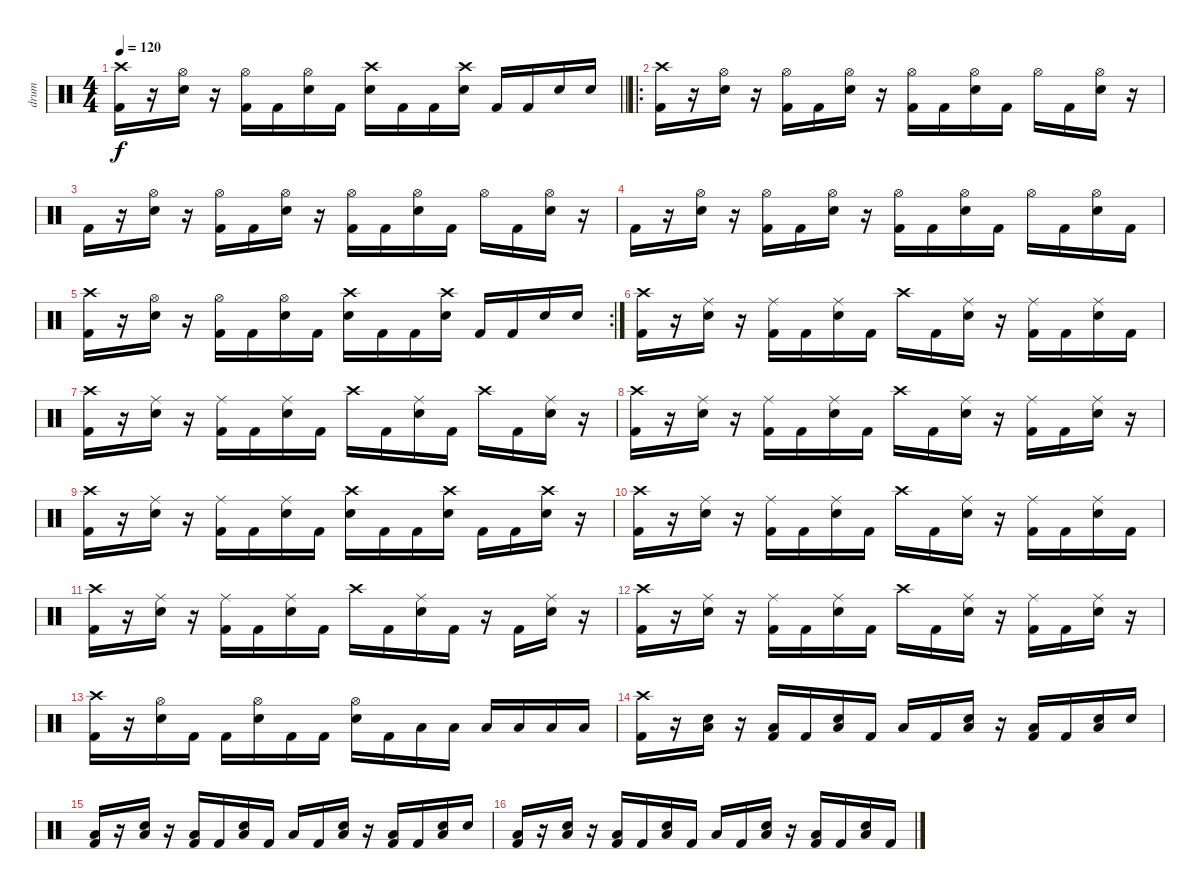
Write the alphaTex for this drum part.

\track ("drum" "drum") {instrument percussion}
\staff {score}
\articulation defaults
\ts (4 4)
\tempo 120
\clef neutral
\barLineRight lightlight
\ks c
("Crash high (hit)" "Kick (hit) 2").16{dy f} r.16 ("Hi-Hat (open)" "Snare (hit) 2").16 r.16 ("Hi-Hat (open)" "Kick (hit) 2").16 "Kick (hit) 2".16 ("Hi-Hat (open)" "Snare (hit) 2").16 "Kick (hit) 2".16 ("Crash high (hit)" "Snare (hit) 2").16 "Kick (hit) 2".16 "Kick (hit) 2".16 ("Crash high (hit)" "Snare (hit) 2").16 "Kick (hit) 2".16 "Kick (hit) 2".16 "Snare (hit) 2".16 "Snare (hit) 2".16 |
\ro
("Crash high (hit)" "Kick (hit) 2").16 r.16 ("Hi-Hat (open)" "Snare (hit) 2").16 r.16 ("Hi-Hat (open)" "Kick (hit) 2").16 "Kick (hit) 2".16 ("Hi-Hat (open)" "Snare (hit) 2").16 r.16 ("Hi-Hat (open)" "Kick (hit) 2").16 "Kick (hit) 2".16 ("Hi-Hat (open)" "Snare (hit) 2").16 "Kick (hit) 2".16 "Hi-Hat (open)".16 "Kick (hit) 2".16 ("Hi-Hat (open)" "Snare (hit) 2").16 r.16 |
"Kick (hit) 2".16 r.16 ("Hi-Hat (open)" "Snare (hit) 2").16 r.16 ("Hi-Hat (open)" "Kick (hit) 2").16 "Kick (hit) 2".16 ("Hi-Hat (open)" "Snare (hit) 2").16 r.16 ("Hi-Hat (open)" "Kick (hit) 2").16 "Kick (hit) 2".16 ("Hi-Hat (open)" "Snare (hit) 2").16 "Kick (hit) 2".16 "Hi-Hat (open)".16 "Kick (hit) 2".16 ("Hi-Hat (open)" "Snare (hit) 2").16 r.16 |
"Kick (hit) 2".16 r.16 ("Hi-Hat (open)" "Snare (hit) 2").16 r.16 ("Hi-Hat (open)" "Kick (hit) 2").16 "Kick (hit) 2".16 ("Hi-Hat (open)" "Snare (hit) 2").16 r.16 ("Hi-Hat (open)" "Kick (hit) 2").16 "Kick (hit) 2".16 ("Hi-Hat (open)" "Snare (hit) 2").16 "Kick (hit) 2".16 "Hi-Hat (open)".16 "Kick (hit) 2".16 ("Hi-Hat (open)" "Snare (hit) 2").16 "Kick (hit) 2".16 |
\rc 2
("Crash high (hit)" "Kick (hit) 2").16 r.16 ("Hi-Hat (open)" "Snare (hit) 2").16 r.16 ("Hi-Hat (open)" "Kick (hit) 2").16 "Kick (hit) 2".16 ("Hi-Hat (open)" "Snare (hit) 2").16 "Kick (hit) 2".16 ("Crash high (hit)" "Snare (hit) 2").16 "Kick (hit) 2".16 "Kick (hit) 2".16 ("Crash high (hit)" "Snare (hit) 2").16 "Kick (hit) 2".16 "Kick (hit) 2".16 "Snare (hit) 2".16 "Snare (hit) 2".16 |
("Crash high (hit)" "Kick (hit) 2").16 r.16 ("Ride (middle)" "Snare (hit) 2").16 r.16 ("Ride (middle)" "Kick (hit) 2").16 "Kick (hit) 2".16 ("Ride (middle)" "Snare (hit) 2").16 "Kick (hit) 2".16 "Crash high (hit)".16 "Kick (hit) 2".16 ("Ride (middle)" "Snare (hit) 2").16 r.16 ("Ride (middle)" "Kick (hit) 2").16 "Kick (hit) 2".16 ("Ride (middle)" "Snare (hit) 2").16 "Kick (hit) 2".16 |
("Crash high (hit)" "Kick (hit) 2").16 r.16 ("Ride (middle)" "Snare (hit) 2").16 r.16 ("Ride (middle)" "Kick (hit) 2").16 "Kick (hit) 2".16 ("Ride (middle)" "Snare (hit) 2").16 "Kick (hit) 2".16 "Crash high (hit)".16 "Kick (hit) 2".16 ("Ride (middle)" "Snare (hit) 2").16 "Kick (hit) 2".16 "Crash high (hit)".16 "Kick (hit) 2".16 ("Ride (middle)" "Snare (hit) 2").16 r.16 |
("Crash high (hit)" "Kick (hit) 2").16 r.16 ("Ride (middle)" "Snare (hit) 2").16 r.16 ("Ride (middle)" "Kick (hit) 2").16 "Kick (hit) 2".16 ("Ride (middle)" "Snare (hit) 2").16 "Kick (hit) 2".16 "Crash high (hit)".16 "Kick (hit) 2".16 ("Ride (middle)" "Snare (hit) 2").16 r.16 ("Ride (middle)" "Kick (hit) 2").16 "Kick (hit) 2".16 ("Ride (middle)" "Snare (hit) 2").16 r.16 |
("Crash high (hit)" "Kick (hit) 2").16 r.16 ("Ride (middle)" "Snare (hit) 2").16 r.16 ("Ride (middle)" "Kick (hit) 2").16 "Kick (hit) 2".16 ("Ride (middle)" "Snare (hit) 2").16 "Kick (hit) 2".16 ("Crash high (hit)" "Snare (hit) 2").16 "Kick (hit) 2".16 "Kick (hit) 2".16 ("Crash high (hit)" "Snare (hit) 2").16 "Kick (hit) 2".16 "Kick (hit) 2".16 ("Crash high (hit)" "Snare (hit) 2").16 r.16 |
("Crash high (hit)" "Kick (hit) 2").16 r.16 ("Ride (middle)" "Snare (hit) 2").16 r.16 ("Ride (middle)" "Kick (hit) 2").16 "Kick (hit) 2".16 ("Ride (middle)" "Snare (hit) 2").16 "Kick (hit) 2".16 "Crash high (hit)".16 "Kick (hit) 2".16 ("Ride (middle)" "Snare (hit) 2").16 r.16 ("Ride (middle)" "Kick (hit) 2").16 "Kick (hit) 2".16 ("Ride (middle)" "Snare (hit) 2").16 "Kick (hit) 2".16 |
("Crash high (hit)" "Kick (hit) 2").16 r.16 ("Ride (middle)" "Snare (hit) 2").16 r.16 ("Ride (middle)" "Kick (hit) 2").16 "Kick (hit) 2".16 ("Ride (middle)" "Snare (hit) 2").16 "Kick (hit) 2".16 "Crash high (hit)".16 "Kick (hit) 2".16 ("Ride (middle)" "Snare (hit) 2").16 "Kick (hit) 2".16 r.16 "Kick (hit) 2".16 ("Ride (middle)" "Snare (hit) 2").16 r.16 |
("Crash high (hit)" "Kick (hit) 2").16 r.16 ("Ride (middle)" "Snare (hit) 2").16 r.16 ("Ride (middle)" "Kick (hit) 2").16 "Kick (hit) 2".16 ("Ride (middle)" "Snare (hit) 2").16 "Kick (hit) 2".16 "Crash high (hit)".16 "Kick (hit) 2".16 ("Ride (middle)" "Snare (hit) 2").16 r.16 ("Ride (middle)" "Kick (hit) 2").16 "Kick (hit) 2".16 ("Ride (middle)" "Snare (hit) 2").16 r.16 |
("Crash high (hit)" "Kick (hit) 2").16 r.16 ("Hi-Hat (open)" "Snare (hit) 2").16 "Kick (hit) 2".16 "Kick (hit) 2".16 ("Hi-Hat (open)" "Snare (hit) 2").16 "Kick (hit) 2".16 "Kick (hit) 2".16 ("Hi-Hat (open)" "Snare (hit) 2").16 "Kick (hit) 2".16 "Low Floor Tom (hit)".16 "Low Floor Tom (hit)".16 "Low Floor Tom (hit)".16 "Low Floor Tom (hit)".16 "Low Floor Tom (hit)".16 "Low Floor Tom (hit)".16 |
("Crash high (hit)" "Kick (hit) 2").16 r.16 ("Low Floor Tom (hit)" "Snare (hit) 2").16 r.16 ("Low Floor Tom (hit)" "Kick (hit) 2").16 "Kick (hit) 2".16 ("Low Floor Tom (hit)" "Snare (hit) 2").16 "Kick (hit) 2".16 "Low Floor Tom (hit)".16 "Kick (hit) 2".16 ("Low Floor Tom (hit)" "Snare (hit) 2").16 r.16 ("Low Floor Tom (hit)" "Kick (hit) 2").16 "Kick (hit) 2".16 ("Low Floor Tom (hit)" "Snare (hit) 2").16 "Snare (hit) 2".16 |
("Low Floor Tom (hit)" "Kick (hit) 2").16 r.16 ("Low Floor Tom (hit)" "Snare (hit) 2").16 r.16 ("Low Floor Tom (hit)" "Kick (hit) 2").16 "Kick (hit) 2".16 ("Low Floor Tom (hit)" "Snare (hit) 2").16 "Kick (hit) 2".16 "Low Floor Tom (hit)".16 "Kick (hit) 2".16 ("Low Floor Tom (hit)" "Snare (hit) 2").16 r.16 ("Low Floor Tom (hit)" "Kick (hit) 2").16 "Kick (hit) 2".16 ("Low Floor Tom (hit)" "Snare (hit) 2").16 "Snare (hit) 2".16 |
("Low Floor Tom (hit)" "Kick (hit) 2").16 r.16 ("Low Floor Tom (hit)" "Snare (hit) 2").16 r.16 ("Low Floor Tom (hit)" "Kick (hit) 2").16 "Kick (hit) 2".16 ("Low Floor Tom (hit)" "Snare (hit) 2").16 "Kick (hit) 2".16 "Low Floor Tom (hit)".16 "Kick (hit) 2".16 ("Low Floor Tom (hit)" "Snare (hit) 2").16 r.16 ("Low Floor Tom (hit)" "Kick (hit) 2").16 "Kick (hit) 2".16 ("Low Floor Tom (hit)" "Snare (hit) 2").16 "Kick (hit) 2".16
